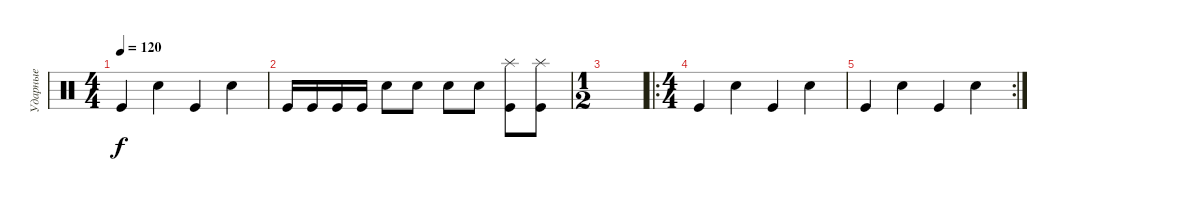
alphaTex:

\track ("Ударные" "Ударные") {instrument percussion}
\staff {score}
\articulation defaults
\ts (4 4)
\tempo 120
\clef neutral
\ks c "Kick (hit)".4{dy f} "Electric Snare (hit)".4 "Kick (hit)".4 "Electric Snare (hit)".4
|
"Kick (hit)".16 "Kick (hit)".16 "Kick (hit)".16 "Kick (hit)".16 "Electric Snare (hit)".8 "Electric Snare (hit)".8 "Electric Snare (hit)".8 "Electric Snare (hit)".8 ("Kick (hit)" "Splash (hit)").8 ("Kick (hit)" "Splash (hit)").8 |
\ts (1 2)
|
\ro
\ts (4 4)
"Kick (hit)".4 "Electric Snare (hit)".4 "Kick (hit)".4 "Electric Snare (hit)".4 |
\rc 2 "Kick (hit)".4 "Electric Snare (hit)".4 "Kick (hit)".4 "Electric Snare (hit)".4
